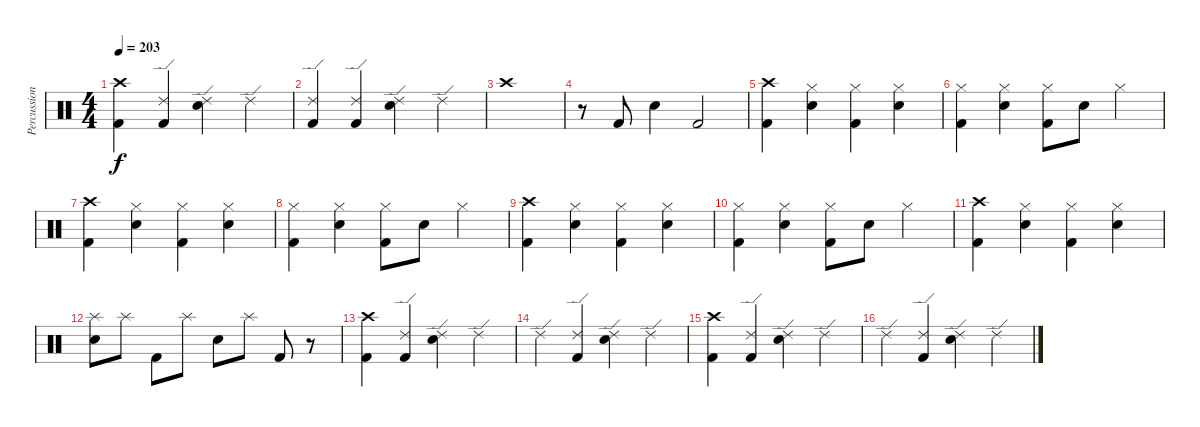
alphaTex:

\track ("Percussion" "Percussion") {instrument percussion}
\staff {score}
\articulation defaults
\ts (4 4)
\tempo 203
\clef neutral
\ks c
("Crash high (hit)" "Kick (hit) 2").4{dy f} ("Ride (edge) 2" "Kick (hit) 2").4 ("Ride (edge) 2" "Electric Snare (hit)").4 "Ride (edge) 2".4 |
("Ride (edge) 2" "Kick (hit) 2").4 ("Ride (edge) 2" "Kick (hit) 2").4 ("Ride (edge) 2" "Electric Snare (hit)").4 "Ride (edge) 2".4 |
"Crash high (hit)".1 |
r.8 "Kick (hit) 2".8 "Electric Snare (hit)".4 "Kick (hit) 2".2 |
("Crash high (hit)" "Kick (hit) 2").4 ("Hi-Hat (closed)" "Electric Snare (hit)").4 ("Hi-Hat (closed)" "Kick (hit) 2").4 ("Hi-Hat (closed)" "Electric Snare (hit)").4 |
("Hi-Hat (closed)" "Kick (hit) 2").4 ("Hi-Hat (closed)" "Electric Snare (hit)").4 ("Hi-Hat (closed)" "Kick (hit) 2").8 "Electric Snare (hit)".8 "Hi-Hat (closed)".4 |
("Crash high (hit)" "Kick (hit) 2").4 ("Hi-Hat (closed)" "Electric Snare (hit)").4 ("Hi-Hat (closed)" "Kick (hit) 2").4 ("Hi-Hat (closed)" "Electric Snare (hit)").4 |
("Hi-Hat (closed)" "Kick (hit) 2").4 ("Hi-Hat (closed)" "Electric Snare (hit)").4 ("Hi-Hat (closed)" "Kick (hit) 2").8 "Electric Snare (hit)".8 "Hi-Hat (closed)".4 |
("Crash high (hit)" "Kick (hit) 2").4 ("Hi-Hat (closed)" "Electric Snare (hit)").4 ("Hi-Hat (closed)" "Kick (hit) 2").4 ("Hi-Hat (closed)" "Electric Snare (hit)").4 |
("Hi-Hat (closed)" "Kick (hit) 2").4 ("Hi-Hat (closed)" "Electric Snare (hit)").4 ("Hi-Hat (closed)" "Kick (hit) 2").8 "Electric Snare (hit)".8 "Hi-Hat (closed)".4 |
("Crash high (hit)" "Kick (hit) 2").4 ("Hi-Hat (closed)" "Electric Snare (hit)").4 ("Hi-Hat (closed)" "Kick (hit) 2").4 ("Hi-Hat (closed)" "Electric Snare (hit)").4 |
("Splash (hit)" "Electric Snare (hit)").8 "Splash (hit)".8 "Kick (hit) 2".8 "Splash (hit)".8 "Electric Snare (hit)".8 "Splash (hit)".8 "Kick (hit) 2".8 r.8 |
("Crash high (hit)" "Kick (hit) 2").4 ("Ride (edge) 2" "Kick (hit) 2").4 ("Ride (edge) 2" "Electric Snare (hit)").4 "Ride (edge) 2".4 |
"Ride (edge) 2".4 ("Ride (edge) 2" "Kick (hit) 2").4 ("Ride (edge) 2" "Electric Snare (hit)").4 "Ride (edge) 2".4 |
("Crash high (hit)" "Kick (hit) 2").4 ("Ride (edge) 2" "Kick (hit) 2").4 ("Ride (edge) 2" "Electric Snare (hit)").4 "Ride (edge) 2".4 |
"Ride (edge) 2".4 ("Ride (edge) 2" "Kick (hit) 2").4 ("Ride (edge) 2" "Electric Snare (hit)").4 "Ride (edge) 2".4
